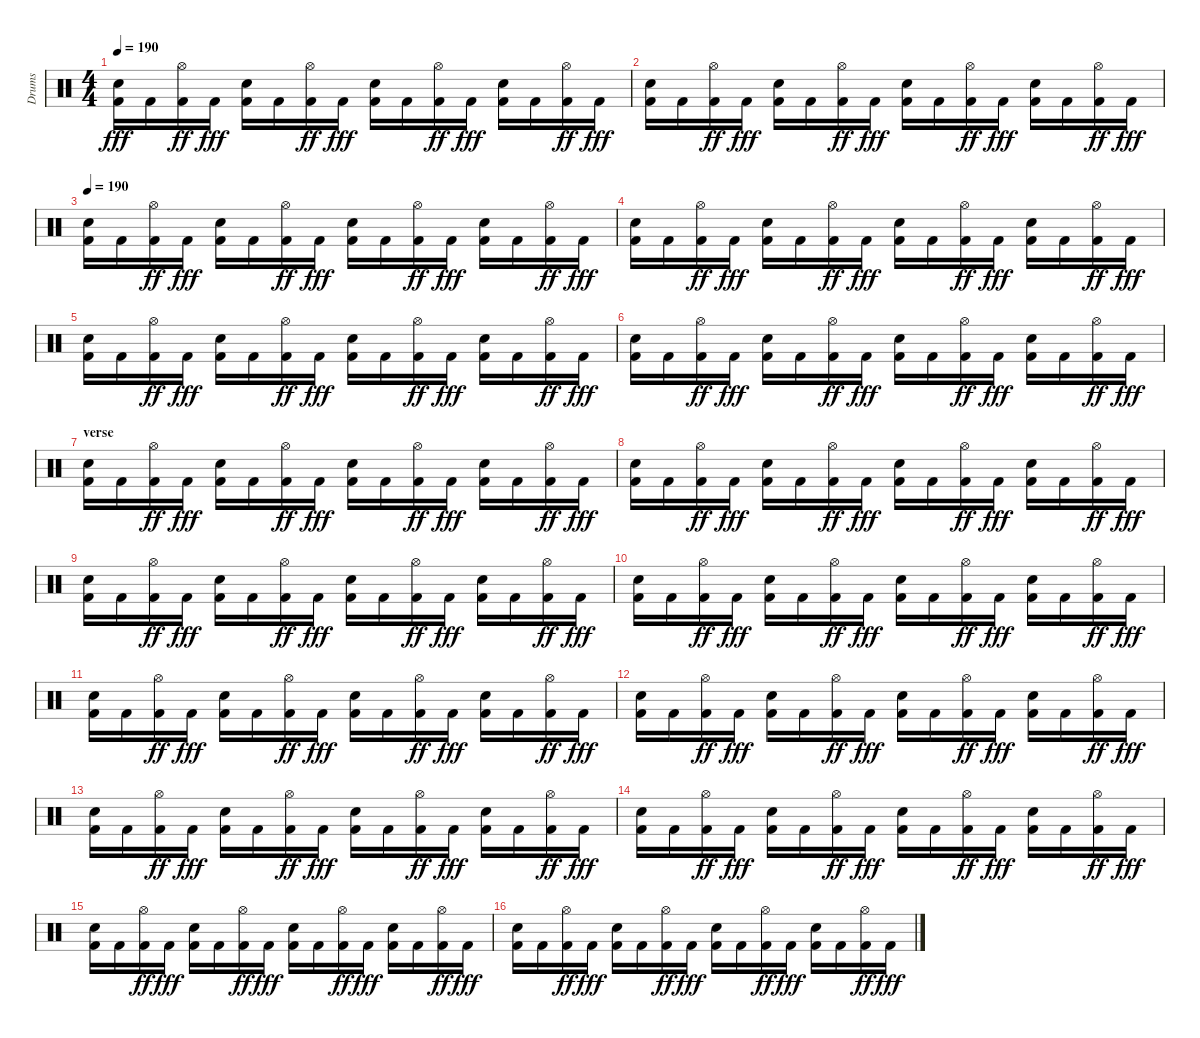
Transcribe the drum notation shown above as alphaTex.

\track ("Drums" "Drums") {instrument percussion}
\staff {score}
\articulation defaults
\ts (4 4)
\tempo 190
\clef neutral
\ks c
("Kick (hit) 2" "Electric Snare (hit)").16{dy fff} "Kick (hit) 2".16 ("Kick (hit) 2" "Hi-Hat (open)").16{dy ff} "Kick (hit) 2".16{dy fff} ("Kick (hit) 2" "Electric Snare (hit)").16 "Kick (hit) 2".16 ("Kick (hit) 2" "Hi-Hat (open)").16{dy ff} "Kick (hit) 2".16{dy fff} ("Kick (hit) 2" "Electric Snare (hit)").16 "Kick (hit) 2".16 ("Kick (hit) 2" "Hi-Hat (open)").16{dy ff} "Kick (hit) 2".16{dy fff} ("Kick (hit) 2" "Electric Snare (hit)").16 "Kick (hit) 2".16 ("Kick (hit) 2" "Hi-Hat (open)").16{dy ff} "Kick (hit) 2".16{dy fff} |
("Kick (hit) 2" "Electric Snare (hit)").16 "Kick (hit) 2".16 ("Kick (hit) 2" "Hi-Hat (open)").16{dy ff} "Kick (hit) 2".16{dy fff} ("Kick (hit) 2" "Electric Snare (hit)").16 "Kick (hit) 2".16 ("Kick (hit) 2" "Hi-Hat (open)").16{dy ff} "Kick (hit) 2".16{dy fff} ("Kick (hit) 2" "Electric Snare (hit)").16 "Kick (hit) 2".16 ("Kick (hit) 2" "Hi-Hat (open)").16{dy ff} "Kick (hit) 2".16{dy fff} ("Kick (hit) 2" "Electric Snare (hit)").16 "Kick (hit) 2".16 ("Kick (hit) 2" "Hi-Hat (open)").16{dy ff} "Kick (hit) 2".16{dy fff} |
\tempo 190
("Kick (hit) 2" "Electric Snare (hit)").16 "Kick (hit) 2".16 ("Kick (hit) 2" "Hi-Hat (open)").16{dy ff} "Kick (hit) 2".16{dy fff} ("Kick (hit) 2" "Electric Snare (hit)").16 "Kick (hit) 2".16 ("Kick (hit) 2" "Hi-Hat (open)").16{dy ff} "Kick (hit) 2".16{dy fff} ("Kick (hit) 2" "Electric Snare (hit)").16 "Kick (hit) 2".16 ("Kick (hit) 2" "Hi-Hat (open)").16{dy ff} "Kick (hit) 2".16{dy fff} ("Kick (hit) 2" "Electric Snare (hit)").16 "Kick (hit) 2".16 ("Kick (hit) 2" "Hi-Hat (open)").16{dy ff} "Kick (hit) 2".16{dy fff} |
("Kick (hit) 2" "Electric Snare (hit)").16 "Kick (hit) 2".16 ("Kick (hit) 2" "Hi-Hat (open)").16{dy ff} "Kick (hit) 2".16{dy fff} ("Kick (hit) 2" "Electric Snare (hit)").16 "Kick (hit) 2".16 ("Kick (hit) 2" "Hi-Hat (open)").16{dy ff} "Kick (hit) 2".16{dy fff} ("Kick (hit) 2" "Electric Snare (hit)").16 "Kick (hit) 2".16 ("Kick (hit) 2" "Hi-Hat (open)").16{dy ff} "Kick (hit) 2".16{dy fff} ("Kick (hit) 2" "Electric Snare (hit)").16 "Kick (hit) 2".16 ("Kick (hit) 2" "Hi-Hat (open)").16{dy ff} "Kick (hit) 2".16{dy fff} |
("Kick (hit) 2" "Electric Snare (hit)").16 "Kick (hit) 2".16 ("Kick (hit) 2" "Hi-Hat (open)").16{dy ff} "Kick (hit) 2".16{dy fff} ("Kick (hit) 2" "Electric Snare (hit)").16 "Kick (hit) 2".16 ("Kick (hit) 2" "Hi-Hat (open)").16{dy ff} "Kick (hit) 2".16{dy fff} ("Kick (hit) 2" "Electric Snare (hit)").16 "Kick (hit) 2".16 ("Kick (hit) 2" "Hi-Hat (open)").16{dy ff} "Kick (hit) 2".16{dy fff} ("Kick (hit) 2" "Electric Snare (hit)").16 "Kick (hit) 2".16 ("Kick (hit) 2" "Hi-Hat (open)").16{dy ff} "Kick (hit) 2".16{dy fff} |
("Kick (hit) 2" "Electric Snare (hit)").16 "Kick (hit) 2".16 ("Kick (hit) 2" "Hi-Hat (open)").16{dy ff} "Kick (hit) 2".16{dy fff} ("Kick (hit) 2" "Electric Snare (hit)").16 "Kick (hit) 2".16 ("Kick (hit) 2" "Hi-Hat (open)").16{dy ff} "Kick (hit) 2".16{dy fff} ("Kick (hit) 2" "Electric Snare (hit)").16 "Kick (hit) 2".16 ("Kick (hit) 2" "Hi-Hat (open)").16{dy ff} "Kick (hit) 2".16{dy fff} ("Kick (hit) 2" "Electric Snare (hit)").16 "Kick (hit) 2".16 ("Kick (hit) 2" "Hi-Hat (open)").16{dy ff} "Kick (hit) 2".16{dy fff} |
\section ("" "verse")
("Kick (hit) 2" "Electric Snare (hit)").16 "Kick (hit) 2".16 ("Kick (hit) 2" "Hi-Hat (open)").16{dy ff} "Kick (hit) 2".16{dy fff} ("Kick (hit) 2" "Electric Snare (hit)").16 "Kick (hit) 2".16 ("Kick (hit) 2" "Hi-Hat (open)").16{dy ff} "Kick (hit) 2".16{dy fff} ("Kick (hit) 2" "Electric Snare (hit)").16 "Kick (hit) 2".16 ("Kick (hit) 2" "Hi-Hat (open)").16{dy ff} "Kick (hit) 2".16{dy fff} ("Kick (hit) 2" "Electric Snare (hit)").16 "Kick (hit) 2".16 ("Kick (hit) 2" "Hi-Hat (open)").16{dy ff} "Kick (hit) 2".16{dy fff} |
("Kick (hit) 2" "Electric Snare (hit)").16 "Kick (hit) 2".16 ("Kick (hit) 2" "Hi-Hat (open)").16{dy ff} "Kick (hit) 2".16{dy fff} ("Kick (hit) 2" "Electric Snare (hit)").16 "Kick (hit) 2".16 ("Kick (hit) 2" "Hi-Hat (open)").16{dy ff} "Kick (hit) 2".16{dy fff} ("Kick (hit) 2" "Electric Snare (hit)").16 "Kick (hit) 2".16 ("Kick (hit) 2" "Hi-Hat (open)").16{dy ff} "Kick (hit) 2".16{dy fff} ("Kick (hit) 2" "Electric Snare (hit)").16 "Kick (hit) 2".16 ("Kick (hit) 2" "Hi-Hat (open)").16{dy ff} "Kick (hit) 2".16{dy fff} |
("Kick (hit) 2" "Electric Snare (hit)").16 "Kick (hit) 2".16 ("Kick (hit) 2" "Hi-Hat (open)").16{dy ff} "Kick (hit) 2".16{dy fff} ("Kick (hit) 2" "Electric Snare (hit)").16 "Kick (hit) 2".16 ("Kick (hit) 2" "Hi-Hat (open)").16{dy ff} "Kick (hit) 2".16{dy fff} ("Kick (hit) 2" "Electric Snare (hit)").16 "Kick (hit) 2".16 ("Kick (hit) 2" "Hi-Hat (open)").16{dy ff} "Kick (hit) 2".16{dy fff} ("Kick (hit) 2" "Electric Snare (hit)").16 "Kick (hit) 2".16 ("Kick (hit) 2" "Hi-Hat (open)").16{dy ff} "Kick (hit) 2".16{dy fff} |
("Kick (hit) 2" "Electric Snare (hit)").16 "Kick (hit) 2".16 ("Kick (hit) 2" "Hi-Hat (open)").16{dy ff} "Kick (hit) 2".16{dy fff} ("Kick (hit) 2" "Electric Snare (hit)").16 "Kick (hit) 2".16 ("Kick (hit) 2" "Hi-Hat (open)").16{dy ff} "Kick (hit) 2".16{dy fff} ("Kick (hit) 2" "Electric Snare (hit)").16 "Kick (hit) 2".16 ("Kick (hit) 2" "Hi-Hat (open)").16{dy ff} "Kick (hit) 2".16{dy fff} ("Kick (hit) 2" "Electric Snare (hit)").16 "Kick (hit) 2".16 ("Kick (hit) 2" "Hi-Hat (open)").16{dy ff} "Kick (hit) 2".16{dy fff} |
("Kick (hit) 2" "Electric Snare (hit)").16 "Kick (hit) 2".16 ("Kick (hit) 2" "Hi-Hat (open)").16{dy ff} "Kick (hit) 2".16{dy fff} ("Kick (hit) 2" "Electric Snare (hit)").16 "Kick (hit) 2".16 ("Kick (hit) 2" "Hi-Hat (open)").16{dy ff} "Kick (hit) 2".16{dy fff} ("Kick (hit) 2" "Electric Snare (hit)").16 "Kick (hit) 2".16 ("Kick (hit) 2" "Hi-Hat (open)").16{dy ff} "Kick (hit) 2".16{dy fff} ("Kick (hit) 2" "Electric Snare (hit)").16 "Kick (hit) 2".16 ("Kick (hit) 2" "Hi-Hat (open)").16{dy ff} "Kick (hit) 2".16{dy fff} |
("Kick (hit) 2" "Electric Snare (hit)").16 "Kick (hit) 2".16 ("Kick (hit) 2" "Hi-Hat (open)").16{dy ff} "Kick (hit) 2".16{dy fff} ("Kick (hit) 2" "Electric Snare (hit)").16 "Kick (hit) 2".16 ("Kick (hit) 2" "Hi-Hat (open)").16{dy ff} "Kick (hit) 2".16{dy fff} ("Kick (hit) 2" "Electric Snare (hit)").16 "Kick (hit) 2".16 ("Kick (hit) 2" "Hi-Hat (open)").16{dy ff} "Kick (hit) 2".16{dy fff} ("Kick (hit) 2" "Electric Snare (hit)").16 "Kick (hit) 2".16 ("Kick (hit) 2" "Hi-Hat (open)").16{dy ff} "Kick (hit) 2".16{dy fff} |
("Kick (hit) 2" "Electric Snare (hit)").16 "Kick (hit) 2".16 ("Kick (hit) 2" "Hi-Hat (open)").16{dy ff} "Kick (hit) 2".16{dy fff} ("Kick (hit) 2" "Electric Snare (hit)").16 "Kick (hit) 2".16 ("Kick (hit) 2" "Hi-Hat (open)").16{dy ff} "Kick (hit) 2".16{dy fff} ("Kick (hit) 2" "Electric Snare (hit)").16 "Kick (hit) 2".16 ("Kick (hit) 2" "Hi-Hat (open)").16{dy ff} "Kick (hit) 2".16{dy fff} ("Kick (hit) 2" "Electric Snare (hit)").16 "Kick (hit) 2".16 ("Kick (hit) 2" "Hi-Hat (open)").16{dy ff} "Kick (hit) 2".16{dy fff} |
("Kick (hit) 2" "Electric Snare (hit)").16 "Kick (hit) 2".16 ("Kick (hit) 2" "Hi-Hat (open)").16{dy ff} "Kick (hit) 2".16{dy fff} ("Kick (hit) 2" "Electric Snare (hit)").16 "Kick (hit) 2".16 ("Kick (hit) 2" "Hi-Hat (open)").16{dy ff} "Kick (hit) 2".16{dy fff} ("Kick (hit) 2" "Electric Snare (hit)").16 "Kick (hit) 2".16 ("Kick (hit) 2" "Hi-Hat (open)").16{dy ff} "Kick (hit) 2".16{dy fff} ("Kick (hit) 2" "Electric Snare (hit)").16 "Kick (hit) 2".16 ("Kick (hit) 2" "Hi-Hat (open)").16{dy ff} "Kick (hit) 2".16{dy fff} |
("Kick (hit) 2" "Electric Snare (hit)").16 "Kick (hit) 2".16 ("Kick (hit) 2" "Hi-Hat (open)").16{dy ff} "Kick (hit) 2".16{dy fff} ("Kick (hit) 2" "Electric Snare (hit)").16 "Kick (hit) 2".16 ("Kick (hit) 2" "Hi-Hat (open)").16{dy ff} "Kick (hit) 2".16{dy fff} ("Kick (hit) 2" "Electric Snare (hit)").16 "Kick (hit) 2".16 ("Kick (hit) 2" "Hi-Hat (open)").16{dy ff} "Kick (hit) 2".16{dy fff} ("Kick (hit) 2" "Electric Snare (hit)").16 "Kick (hit) 2".16 ("Kick (hit) 2" "Hi-Hat (open)").16{dy ff} "Kick (hit) 2".16{dy fff} |
("Kick (hit) 2" "Electric Snare (hit)").16 "Kick (hit) 2".16 ("Kick (hit) 2" "Hi-Hat (open)").16{dy ff} "Kick (hit) 2".16{dy fff} ("Kick (hit) 2" "Electric Snare (hit)").16 "Kick (hit) 2".16 ("Kick (hit) 2" "Hi-Hat (open)").16{dy ff} "Kick (hit) 2".16{dy fff} ("Kick (hit) 2" "Electric Snare (hit)").16 "Kick (hit) 2".16 ("Kick (hit) 2" "Hi-Hat (open)").16{dy ff} "Kick (hit) 2".16{dy fff} ("Kick (hit) 2" "Electric Snare (hit)").16 "Kick (hit) 2".16 ("Kick (hit) 2" "Hi-Hat (open)").16{dy ff} "Kick (hit) 2".16{dy fff}
